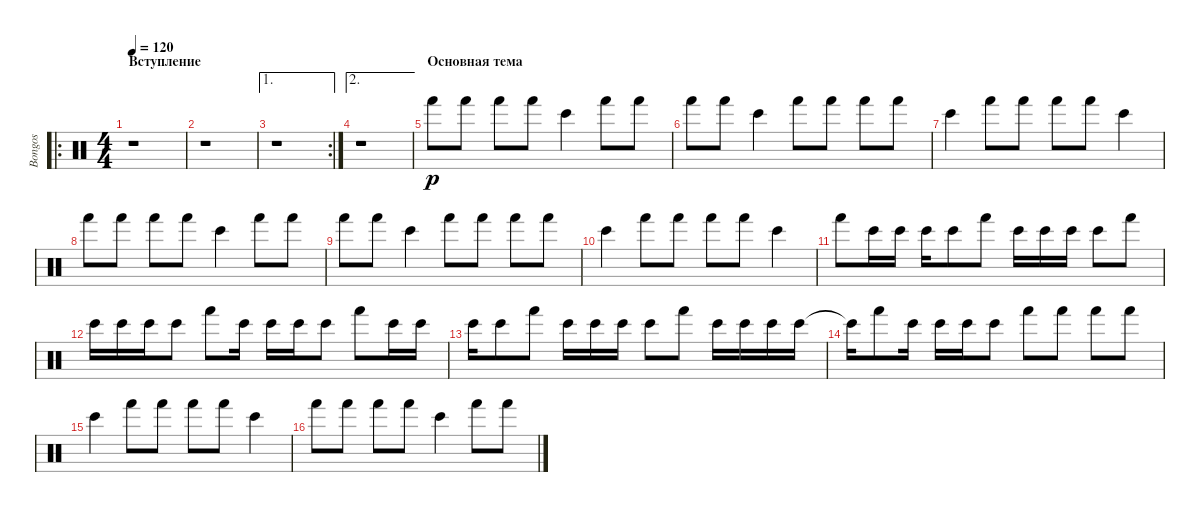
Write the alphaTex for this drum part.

\track ("Bongos" "Bongos") {instrument percussion}
\staff {score}
\articulation defaults
\ro
\ts (4 4)
\section ("" "Вступление")
\tempo 120
\clef neutral
\ks c
r.1{dy p} |
r.1 |
\ae 1
\rc 2
r.1 |
\ae 2
r.1 |
\section ("" "Основная тема")
"Hand (hit)".8 "Hand (hit)".8 "Hand (hit)".8 "Hand (hit)".8 "Bongo High (hit)".4 "Hand (hit)".8 "Hand (hit)".8 |
"Hand (hit)".8 "Hand (hit)".8 "Bongo High (hit)".4 "Hand (hit)".8 "Hand (hit)".8 "Hand (hit)".8 "Hand (hit)".8 |
"Bongo High (hit)".4 "Hand (hit)".8 "Hand (hit)".8 "Hand (hit)".8 "Hand (hit)".8 "Bongo High (hit)".4 |
"Hand (hit)".8 "Hand (hit)".8 "Hand (hit)".8 "Hand (hit)".8 "Bongo High (hit)".4 "Hand (hit)".8 "Hand (hit)".8 |
"Hand (hit)".8 "Hand (hit)".8 "Bongo High (hit)".4 "Hand (hit)".8 "Hand (hit)".8 "Hand (hit)".8 "Hand (hit)".8 |
"Bongo High (hit)".4 "Hand (hit)".8 "Hand (hit)".8 "Hand (hit)".8 "Hand (hit)".8 "Bongo High (hit)".4 |
"Hand (hit)".8 "Bongo High (hit)".16 "Bongo High (hit)".16 "Bongo High (hit)".16 "Bongo High (hit)".8 "Hand (hit)".8 "Bongo High (hit)".16 "Bongo High (hit)".16 "Bongo High (hit)".16 "Bongo High (hit)".8 "Hand (hit)".8 |
"Bongo High (hit)".16 "Bongo High (hit)".16 "Bongo High (hit)".16 "Bongo High (hit)".8 "Hand (hit)".8 "Bongo High (hit)".16 "Bongo High (hit)".16 "Bongo High (hit)".16 "Bongo High (hit)".8 "Hand (hit)".8 "Bongo High (hit)".16 "Bongo High (hit)".16 |
"Bongo High (hit)".16 "Bongo High (hit)".8 "Hand (hit)".8 "Bongo High (hit)".16 "Bongo High (hit)".16 "Bongo High (hit)".16 "Bongo High (hit)".8 "Hand (hit)".8 "Bongo High (hit)".16 "Bongo High (hit)".16 "Bongo High (hit)".16 "Bongo High (hit)".16 |
"Bongo High (hit)"{t}.16 "Hand (hit)".8 "Bongo High (hit)".16 "Bongo High (hit)".16 "Bongo High (hit)".16 "Bongo High (hit)".8 "Hand (hit)".8 "Hand (hit)".8 "Hand (hit)".8 "Hand (hit)".8 |
"Bongo High (hit)".4 "Hand (hit)".8 "Hand (hit)".8 "Hand (hit)".8 "Hand (hit)".8 "Bongo High (hit)".4 |
"Hand (hit)".8 "Hand (hit)".8 "Hand (hit)".8 "Hand (hit)".8 "Bongo High (hit)".4 "Hand (hit)".8 "Hand (hit)".8
